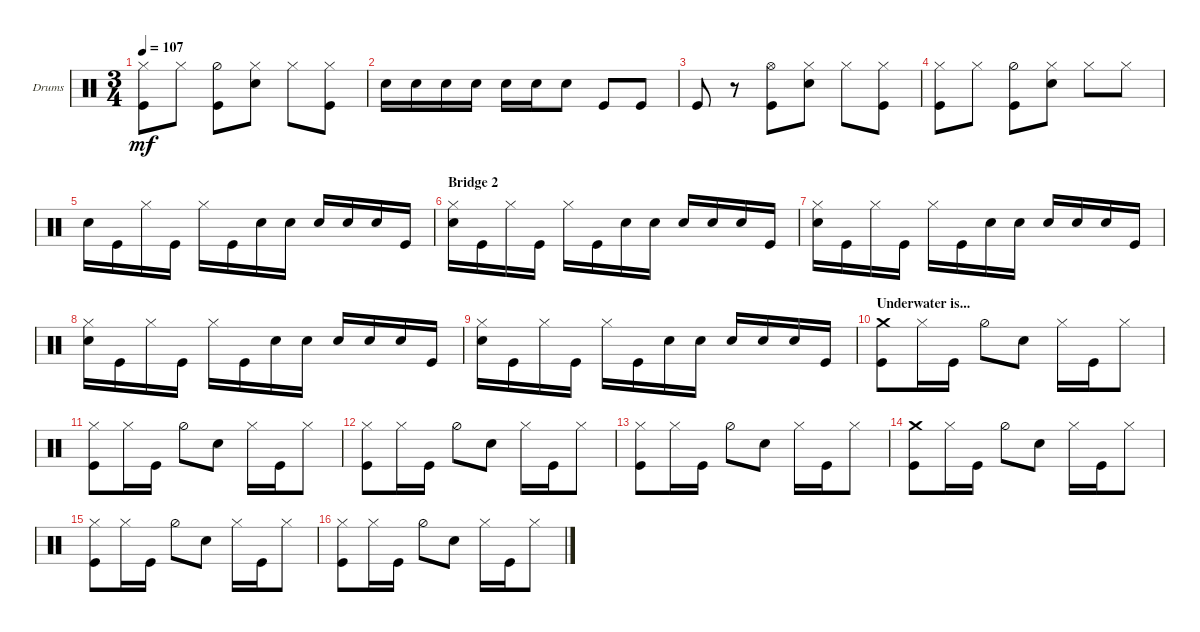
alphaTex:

\defaultSystemsLayout 4
\bracketExtendMode groupsimilarinstruments
\firstSystemTrackNameOrientation horizontal
\otherSystemsTrackNameOrientation horizontal
\track ("Drums" "Drums") {instrument percussion}
\staff {score}
\articulation defaults
\ts (3 4)
\tempo 107
\clef neutral
\ks c
("Hi-Hat (closed)" "Kick (hit)").8{dy mf} "Hi-Hat (closed)".8 ("Hi-Hat (half)" "Kick (hit)").8 ("Hi-Hat (closed)" "Snare (hit) 2").8 "Hi-Hat (closed)".8 ("Hi-Hat (closed)" "Kick (hit)").8 |
"Snare (hit) 2".16 "Snare (hit) 2".16 "Snare (hit) 2".16 "Snare (hit) 2".16 "Snare (hit) 2".16 "Snare (hit) 2".16 "Snare (hit) 2".8 "Kick (hit)".8 "Kick (hit)".8 |
"Kick (hit)".8 r.8 ("Hi-Hat (open)" "Kick (hit)").8 ("Snare (hit) 2" "Hi-Hat (closed)").8 "Hi-Hat (closed)".8 ("Hi-Hat (closed)" "Kick (hit)").8 |
("Hi-Hat (closed)" "Kick (hit)").8 "Hi-Hat (closed)".8 ("Hi-Hat (half)" "Kick (hit)").8 ("Hi-Hat (closed)" "Snare (hit) 2").8 "Hi-Hat (closed)".8 "Hi-Hat (closed)".8 |
"Snare (hit) 2".16 "Kick (hit)".16 "Hi-Hat (closed)".16 "Kick (hit)".16 "Hi-Hat (closed)".16 "Kick (hit)".16 "Snare (hit) 2".16 "Snare (hit) 2".16 "Snare (hit) 2".16 "Snare (hit) 2".16 "Snare (hit) 2".16 "Kick (hit)".16 |
\section ("" "Bridge 2")
("Snare (hit) 2" "Hi-Hat (closed)").16 "Kick (hit)".16 "Hi-Hat (closed)".16 "Kick (hit)".16 "Hi-Hat (closed)".16 "Kick (hit)".16 "Snare (hit) 2".16 "Snare (hit) 2".16 "Snare (hit) 2".16 "Snare (hit) 2".16 "Snare (hit) 2".16 "Kick (hit)".16 |
("Snare (hit) 2" "Hi-Hat (closed)").16 "Kick (hit)".16 "Hi-Hat (closed)".16 "Kick (hit)".16 "Hi-Hat (closed)".16 "Kick (hit)".16 "Snare (hit) 2".16 "Snare (hit) 2".16 "Snare (hit) 2".16 "Snare (hit) 2".16 "Snare (hit) 2".16 "Kick (hit)".16 |
("Snare (hit) 2" "Hi-Hat (closed)").16 "Kick (hit)".16 "Hi-Hat (closed)".16 "Kick (hit)".16 "Hi-Hat (closed)".16 "Kick (hit)".16 "Snare (hit) 2".16 "Snare (hit) 2".16 "Snare (hit) 2".16 "Snare (hit) 2".16 "Snare (hit) 2".16 "Kick (hit)".16 |
("Snare (hit) 2" "Hi-Hat (closed)").16 "Kick (hit)".16 "Hi-Hat (closed)".16 "Kick (hit)".16 "Hi-Hat (closed)".16 "Kick (hit)".16 "Snare (hit) 2".16 "Snare (hit) 2".16 "Snare (hit) 2".16 "Snare (hit) 2".16 "Snare (hit) 2".16 "Kick (hit)".16 |
\section ("" "Underwater is...")
("Crash medium (hit)" "Kick (hit)").8 "Hi-Hat (closed)".16 "Kick (hit)".16 "Hi-Hat (half)".8 "Snare (hit) 2".8 "Hi-Hat (closed)".16 "Kick (hit)".16 "Hi-Hat (closed)".8 |
("Hi-Hat (closed)" "Kick (hit)").8 "Hi-Hat (closed)".16 "Kick (hit)".16 "Hi-Hat (half)".8 "Snare (hit) 2".8 "Hi-Hat (closed)".16 "Kick (hit)".16 "Hi-Hat (closed)".8 |
("Hi-Hat (closed)" "Kick (hit)").8 "Hi-Hat (closed)".16 "Kick (hit)".16 "Hi-Hat (half)".8 "Snare (hit) 2".8 "Hi-Hat (closed)".16 "Kick (hit)".16 "Hi-Hat (closed)".8 |
("Hi-Hat (closed)" "Kick (hit)").8 "Hi-Hat (closed)".16 "Kick (hit)".16 "Hi-Hat (half)".8 "Snare (hit) 2".8 "Hi-Hat (closed)".16 "Kick (hit)".16 "Hi-Hat (closed)".8 |
("Crash medium (hit)" "Kick (hit)").8 "Hi-Hat (closed)".16 "Kick (hit)".16 "Hi-Hat (half)".8 "Snare (hit) 2".8 "Hi-Hat (closed)".16 "Kick (hit)".16 "Hi-Hat (closed)".8 |
("Hi-Hat (closed)" "Kick (hit)").8 "Hi-Hat (closed)".16 "Kick (hit)".16 "Hi-Hat (half)".8 "Snare (hit) 2".8 "Hi-Hat (closed)".16 "Kick (hit)".16 "Hi-Hat (closed)".8 |
("Hi-Hat (closed)" "Kick (hit)").8 "Hi-Hat (closed)".16 "Kick (hit)".16 "Hi-Hat (half)".8 "Snare (hit) 2".8 "Hi-Hat (closed)".16 "Kick (hit)".16 "Hi-Hat (closed)".8
